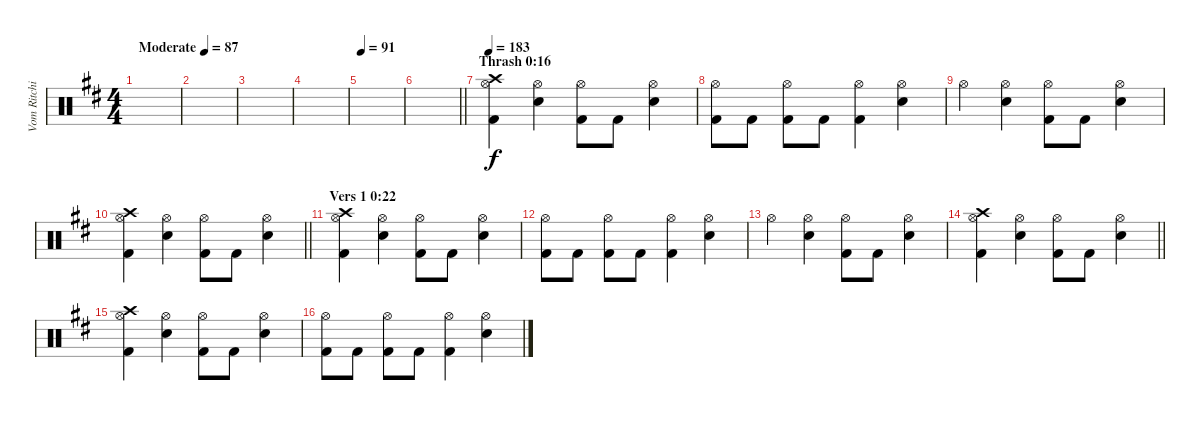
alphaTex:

\track ("Vom Ritchie" "Vom Ritchi") {instrument percussion}
\staff {score}
\articulation defaults
\ts (4 4)
\tempo (87 "Moderate")
\clef neutral
\ks d
|
|
|
|
\tempo 91
|
\barLineRight lightlight
|
\section ("" "Thrash 0:16")
\tempo 183
("Crash high (hit)" "Hi-Hat (open)" "Kick (hit) 2").4 ("Snare (hit) 2" "Hi-Hat (open)").4 ("Hi-Hat (open)" "Kick (hit) 2").8 "Kick (hit) 2".8 ("Snare (hit) 2" "Hi-Hat (open)").4 |
("Hi-Hat (open)" "Kick (hit) 2").8 "Kick (hit) 2".8 ("Hi-Hat (open)" "Kick (hit) 2").8 "Kick (hit) 2".8 ("Hi-Hat (open)" "Kick (hit) 2").4 ("Hi-Hat (open)" "Snare (hit) 2").4 |
"Hi-Hat (open)".4 ("Snare (hit) 2" "Hi-Hat (open)").4 ("Hi-Hat (open)" "Kick (hit) 2").8 "Kick (hit) 2".8 ("Snare (hit) 2" "Hi-Hat (open)").4 |
\barLineRight lightlight
("Crash high (hit)" "Hi-Hat (open)" "Kick (hit) 2").4 ("Snare (hit) 2" "Hi-Hat (open)").4 ("Hi-Hat (open)" "Kick (hit) 2").8 "Kick (hit) 2".8 ("Snare (hit) 2" "Hi-Hat (open)").4 |
\section ("" "Vers 1 0:22")
("Crash high (hit)" "Hi-Hat (open)" "Kick (hit) 2").4 ("Snare (hit) 2" "Hi-Hat (open)").4 ("Hi-Hat (open)" "Kick (hit) 2").8 "Kick (hit) 2".8 ("Snare (hit) 2" "Hi-Hat (open)").4 |
("Hi-Hat (open)" "Kick (hit) 2").8 "Kick (hit) 2".8 ("Hi-Hat (open)" "Kick (hit) 2").8 "Kick (hit) 2".8 ("Hi-Hat (open)" "Kick (hit) 2").4 ("Hi-Hat (open)" "Snare (hit) 2").4 |
"Hi-Hat (open)".4 ("Snare (hit) 2" "Hi-Hat (open)").4 ("Hi-Hat (open)" "Kick (hit) 2").8 "Kick (hit) 2".8 ("Snare (hit) 2" "Hi-Hat (open)").4 |
\barLineRight lightlight
("Crash high (hit)" "Hi-Hat (open)" "Kick (hit) 2").4 ("Snare (hit) 2" "Hi-Hat (open)").4 ("Hi-Hat (open)" "Kick (hit) 2").8 "Kick (hit) 2".8 ("Snare (hit) 2" "Hi-Hat (open)").4 |
("Crash high (hit)" "Hi-Hat (open)" "Kick (hit) 2").4 ("Snare (hit) 2" "Hi-Hat (open)").4 ("Hi-Hat (open)" "Kick (hit) 2").8 "Kick (hit) 2".8 ("Snare (hit) 2" "Hi-Hat (open)").4 |
("Hi-Hat (open)" "Kick (hit) 2").8 "Kick (hit) 2".8 ("Hi-Hat (open)" "Kick (hit) 2").8 "Kick (hit) 2".8 ("Hi-Hat (open)" "Kick (hit) 2").4 ("Hi-Hat (open)" "Snare (hit) 2").4
